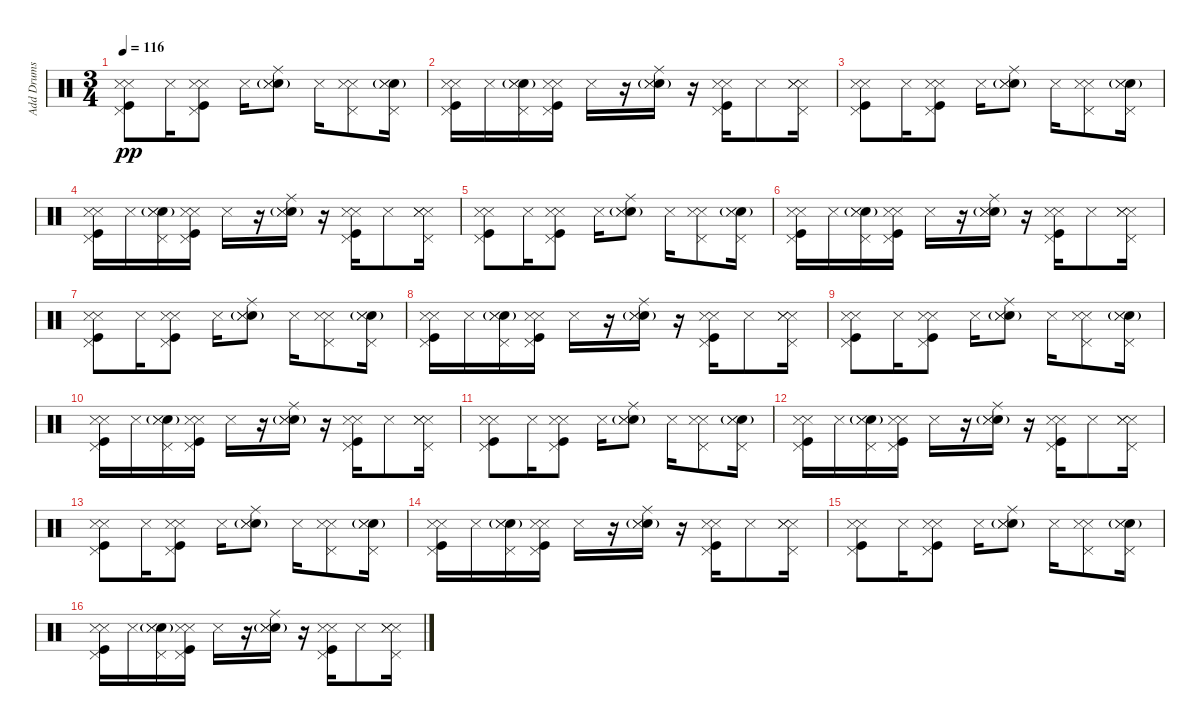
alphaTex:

\track ("Add Drums" "Add Drums") {instrument percussion}
\staff {score}
\articulation defaults
\ts (3 4)
\tempo 116
\clef neutral
\ks c
("Metronome (hit)" "Kick (hit)" "Pedal Hi-Hat (hit)" "Snare (side stick) 3").8{dy pp} "Snare (side stick) 3".16 ("Metronome (hit)" "Kick (hit)" "Pedal Hi-Hat (hit)" "Snare (side stick) 3").8 "Snare (side stick) 3".16 ("Electric Snare (hit)"{g} "Metronome (hit)" "Ride (middle)" "Snare (side stick) 3").8 "Snare (side stick) 3".16 ("Metronome (hit)" "Pedal Hi-Hat (hit)" "Snare (side stick) 3").8 ("Electric Snare (hit)"{g} "Metronome (hit)" "Pedal Hi-Hat (hit)" "Snare (side stick) 3").16 |
("Metronome (hit)" "Kick (hit)" "Pedal Hi-Hat (hit)" "Snare (side stick) 3").16 "Snare (side stick) 3".16 ("Electric Snare (hit)"{g} "Metronome (hit)" "Pedal Hi-Hat (hit)" "Snare (side stick) 3").16 ("Kick (hit)" "Metronome (hit)" "Pedal Hi-Hat (hit)" "Snare (side stick) 3").16 "Snare (side stick) 3".16 r.16 ("Electric Snare (hit)"{g} "Metronome (hit)" "Ride (middle)" "Snare (side stick) 3").16 r.16 ("Kick (hit)" "Metronome (hit)" "Pedal Hi-Hat (hit)" "Snare (side stick) 3").16 "Snare (side stick) 3".8 ("Metronome (hit)" "Metronome (hit)" "Pedal Hi-Hat (hit)" "Snare (side stick) 3").16 |
("Metronome (hit)" "Kick (hit)" "Pedal Hi-Hat (hit)" "Snare (side stick) 3").8 "Snare (side stick) 3".16 ("Metronome (hit)" "Kick (hit)" "Pedal Hi-Hat (hit)" "Snare (side stick) 3").8 "Snare (side stick) 3".16 ("Electric Snare (hit)"{g} "Metronome (hit)" "Ride (middle)" "Snare (side stick) 3").8 "Snare (side stick) 3".16 ("Metronome (hit)" "Pedal Hi-Hat (hit)" "Snare (side stick) 3").8 ("Electric Snare (hit)"{g} "Metronome (hit)" "Pedal Hi-Hat (hit)" "Snare (side stick) 3").16 |
("Metronome (hit)" "Kick (hit)" "Pedal Hi-Hat (hit)" "Snare (side stick) 3").16 "Snare (side stick) 3".16 ("Electric Snare (hit)"{g} "Metronome (hit)" "Pedal Hi-Hat (hit)" "Snare (side stick) 3").16 ("Kick (hit)" "Metronome (hit)" "Pedal Hi-Hat (hit)" "Snare (side stick) 3").16 "Snare (side stick) 3".16 r.16 ("Electric Snare (hit)"{g} "Metronome (hit)" "Ride (middle)" "Snare (side stick) 3").16 r.16 ("Kick (hit)" "Metronome (hit)" "Pedal Hi-Hat (hit)" "Snare (side stick) 3").16 "Snare (side stick) 3".8 ("Metronome (hit)" "Metronome (hit)" "Pedal Hi-Hat (hit)" "Snare (side stick) 3").16 |
("Metronome (hit)" "Kick (hit)" "Pedal Hi-Hat (hit)" "Snare (side stick) 3").8 "Snare (side stick) 3".16 ("Metronome (hit)" "Kick (hit)" "Pedal Hi-Hat (hit)" "Snare (side stick) 3").8 "Snare (side stick) 3".16 ("Electric Snare (hit)"{g} "Metronome (hit)" "Ride (middle)" "Snare (side stick) 3").8 "Snare (side stick) 3".16 ("Metronome (hit)" "Pedal Hi-Hat (hit)" "Snare (side stick) 3").8 ("Electric Snare (hit)"{g} "Metronome (hit)" "Pedal Hi-Hat (hit)" "Snare (side stick) 3").16 |
("Metronome (hit)" "Kick (hit)" "Pedal Hi-Hat (hit)" "Snare (side stick) 3").16 "Snare (side stick) 3".16 ("Electric Snare (hit)"{g} "Metronome (hit)" "Pedal Hi-Hat (hit)" "Snare (side stick) 3").16 ("Kick (hit)" "Metronome (hit)" "Pedal Hi-Hat (hit)" "Snare (side stick) 3").16 "Snare (side stick) 3".16 r.16 ("Electric Snare (hit)"{g} "Metronome (hit)" "Ride (middle)" "Snare (side stick) 3").16 r.16 ("Kick (hit)" "Metronome (hit)" "Pedal Hi-Hat (hit)" "Snare (side stick) 3").16 "Snare (side stick) 3".8 ("Metronome (hit)" "Metronome (hit)" "Pedal Hi-Hat (hit)" "Snare (side stick) 3").16 |
("Metronome (hit)" "Kick (hit)" "Pedal Hi-Hat (hit)" "Snare (side stick) 3").8 "Snare (side stick) 3".16 ("Metronome (hit)" "Kick (hit)" "Pedal Hi-Hat (hit)" "Snare (side stick) 3").8 "Snare (side stick) 3".16 ("Electric Snare (hit)"{g} "Metronome (hit)" "Ride (middle)" "Snare (side stick) 3").8 "Snare (side stick) 3".16 ("Metronome (hit)" "Pedal Hi-Hat (hit)" "Snare (side stick) 3").8 ("Electric Snare (hit)"{g} "Metronome (hit)" "Pedal Hi-Hat (hit)" "Snare (side stick) 3").16 |
("Metronome (hit)" "Kick (hit)" "Pedal Hi-Hat (hit)" "Snare (side stick) 3").16 "Snare (side stick) 3".16 ("Electric Snare (hit)"{g} "Metronome (hit)" "Pedal Hi-Hat (hit)" "Snare (side stick) 3").16 ("Kick (hit)" "Metronome (hit)" "Pedal Hi-Hat (hit)" "Snare (side stick) 3").16 "Snare (side stick) 3".16 r.16 ("Electric Snare (hit)"{g} "Metronome (hit)" "Ride (middle)" "Snare (side stick) 3").16 r.16 ("Kick (hit)" "Metronome (hit)" "Pedal Hi-Hat (hit)" "Snare (side stick) 3").16 "Snare (side stick) 3".8 ("Metronome (hit)" "Metronome (hit)" "Pedal Hi-Hat (hit)" "Snare (side stick) 3").16 |
("Metronome (hit)" "Kick (hit)" "Pedal Hi-Hat (hit)" "Snare (side stick) 3").8 "Snare (side stick) 3".16 ("Metronome (hit)" "Kick (hit)" "Pedal Hi-Hat (hit)" "Snare (side stick) 3").8 "Snare (side stick) 3".16 ("Electric Snare (hit)"{g} "Metronome (hit)" "Ride (middle)" "Snare (side stick) 3").8 "Snare (side stick) 3".16 ("Metronome (hit)" "Pedal Hi-Hat (hit)" "Snare (side stick) 3").8 ("Electric Snare (hit)"{g} "Metronome (hit)" "Pedal Hi-Hat (hit)" "Snare (side stick) 3").16 |
("Metronome (hit)" "Kick (hit)" "Pedal Hi-Hat (hit)" "Snare (side stick) 3").16 "Snare (side stick) 3".16 ("Electric Snare (hit)"{g} "Metronome (hit)" "Pedal Hi-Hat (hit)" "Snare (side stick) 3").16 ("Kick (hit)" "Metronome (hit)" "Pedal Hi-Hat (hit)" "Snare (side stick) 3").16 "Snare (side stick) 3".16 r.16 ("Electric Snare (hit)"{g} "Metronome (hit)" "Ride (middle)" "Snare (side stick) 3").16 r.16 ("Kick (hit)" "Metronome (hit)" "Pedal Hi-Hat (hit)" "Snare (side stick) 3").16 "Snare (side stick) 3".8 ("Metronome (hit)" "Metronome (hit)" "Pedal Hi-Hat (hit)" "Snare (side stick) 3").16 |
("Metronome (hit)" "Kick (hit)" "Pedal Hi-Hat (hit)" "Snare (side stick) 3").8 "Snare (side stick) 3".16 ("Metronome (hit)" "Kick (hit)" "Pedal Hi-Hat (hit)" "Snare (side stick) 3").8 "Snare (side stick) 3".16 ("Electric Snare (hit)"{g} "Metronome (hit)" "Ride (middle)" "Snare (side stick) 3").8 "Snare (side stick) 3".16 ("Metronome (hit)" "Pedal Hi-Hat (hit)" "Snare (side stick) 3").8 ("Electric Snare (hit)"{g} "Metronome (hit)" "Pedal Hi-Hat (hit)" "Snare (side stick) 3").16 |
("Metronome (hit)" "Kick (hit)" "Pedal Hi-Hat (hit)" "Snare (side stick) 3").16 "Snare (side stick) 3".16 ("Electric Snare (hit)"{g} "Metronome (hit)" "Pedal Hi-Hat (hit)" "Snare (side stick) 3").16 ("Kick (hit)" "Metronome (hit)" "Pedal Hi-Hat (hit)" "Snare (side stick) 3").16 "Snare (side stick) 3".16 r.16 ("Electric Snare (hit)"{g} "Metronome (hit)" "Ride (middle)" "Snare (side stick) 3").16 r.16 ("Kick (hit)" "Metronome (hit)" "Pedal Hi-Hat (hit)" "Snare (side stick) 3").16 "Snare (side stick) 3".8 ("Metronome (hit)" "Metronome (hit)" "Pedal Hi-Hat (hit)" "Snare (side stick) 3").16 |
("Metronome (hit)" "Kick (hit)" "Pedal Hi-Hat (hit)" "Snare (side stick) 3").8 "Snare (side stick) 3".16 ("Metronome (hit)" "Kick (hit)" "Pedal Hi-Hat (hit)" "Snare (side stick) 3").8 "Snare (side stick) 3".16 ("Electric Snare (hit)"{g} "Metronome (hit)" "Ride (middle)" "Snare (side stick) 3").8 "Snare (side stick) 3".16 ("Metronome (hit)" "Pedal Hi-Hat (hit)" "Snare (side stick) 3").8 ("Electric Snare (hit)"{g} "Metronome (hit)" "Pedal Hi-Hat (hit)" "Snare (side stick) 3").16 |
("Metronome (hit)" "Kick (hit)" "Pedal Hi-Hat (hit)" "Snare (side stick) 3").16 "Snare (side stick) 3".16 ("Electric Snare (hit)"{g} "Metronome (hit)" "Pedal Hi-Hat (hit)" "Snare (side stick) 3").16 ("Kick (hit)" "Metronome (hit)" "Pedal Hi-Hat (hit)" "Snare (side stick) 3").16 "Snare (side stick) 3".16 r.16 ("Electric Snare (hit)"{g} "Metronome (hit)" "Ride (middle)" "Snare (side stick) 3").16 r.16 ("Kick (hit)" "Metronome (hit)" "Pedal Hi-Hat (hit)" "Snare (side stick) 3").16 "Snare (side stick) 3".8 ("Metronome (hit)" "Metronome (hit)" "Pedal Hi-Hat (hit)" "Snare (side stick) 3").16 |
("Metronome (hit)" "Kick (hit)" "Pedal Hi-Hat (hit)" "Snare (side stick) 3").8 "Snare (side stick) 3".16 ("Metronome (hit)" "Kick (hit)" "Pedal Hi-Hat (hit)" "Snare (side stick) 3").8 "Snare (side stick) 3".16 ("Electric Snare (hit)"{g} "Metronome (hit)" "Ride (middle)" "Snare (side stick) 3").8 "Snare (side stick) 3".16 ("Metronome (hit)" "Pedal Hi-Hat (hit)" "Snare (side stick) 3").8 ("Electric Snare (hit)"{g} "Metronome (hit)" "Pedal Hi-Hat (hit)" "Snare (side stick) 3").16 |
("Metronome (hit)" "Kick (hit)" "Pedal Hi-Hat (hit)" "Snare (side stick) 3").16 "Snare (side stick) 3".16 ("Electric Snare (hit)"{g} "Metronome (hit)" "Pedal Hi-Hat (hit)" "Snare (side stick) 3").16 ("Kick (hit)" "Metronome (hit)" "Pedal Hi-Hat (hit)" "Snare (side stick) 3").16 "Snare (side stick) 3".16 r.16 ("Electric Snare (hit)"{g} "Metronome (hit)" "Ride (middle)" "Snare (side stick) 3").16 r.16 ("Kick (hit)" "Metronome (hit)" "Pedal Hi-Hat (hit)" "Snare (side stick) 3").16 "Snare (side stick) 3".8 ("Metronome (hit)" "Metronome (hit)" "Pedal Hi-Hat (hit)" "Snare (side stick) 3").16
